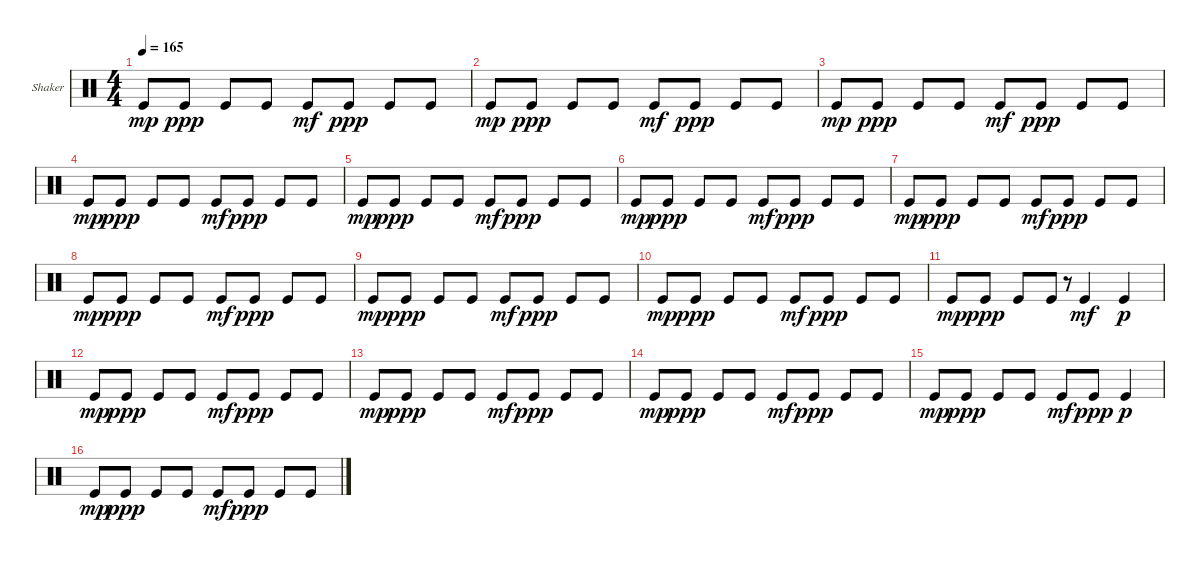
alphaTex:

\defaultSystemsLayout 4
\bracketExtendMode groupsimilarinstruments
\firstSystemTrackNameOrientation horizontal
\otherSystemsTrackNameOrientation horizontal
\track ("Shaker" "Shaker") {instrument percussion}
\staff {score}
\articulation defaults
\ts (4 4)
\tempo 165
\clef neutral
\ks c "Kick (hit)".8{dy mp} "Kick (hit)".8{dy ppp} "Kick (hit)".8 "Kick (hit)".8 "Kick (hit)".8{dy mf} "Kick (hit)".8{dy ppp} "Kick (hit)".8 "Kick (hit)".8
|
"Kick (hit)".8{dy mp} "Kick (hit)".8{dy ppp} "Kick (hit)".8 "Kick (hit)".8 "Kick (hit)".8{dy mf} "Kick (hit)".8{dy ppp} "Kick (hit)".8 "Kick (hit)".8 |
"Kick (hit)".8{dy mp} "Kick (hit)".8{dy ppp} "Kick (hit)".8 "Kick (hit)".8 "Kick (hit)".8{dy mf} "Kick (hit)".8{dy ppp} "Kick (hit)".8 "Kick (hit)".8 |
"Kick (hit)".8{dy mp} "Kick (hit)".8{dy ppp} "Kick (hit)".8 "Kick (hit)".8 "Kick (hit)".8{dy mf} "Kick (hit)".8{dy ppp} "Kick (hit)".8 "Kick (hit)".8 |
"Kick (hit)".8{dy mp} "Kick (hit)".8{dy ppp} "Kick (hit)".8 "Kick (hit)".8 "Kick (hit)".8{dy mf} "Kick (hit)".8{dy ppp} "Kick (hit)".8 "Kick (hit)".8 |
"Kick (hit)".8{dy mp} "Kick (hit)".8{dy ppp} "Kick (hit)".8 "Kick (hit)".8 "Kick (hit)".8{dy mf} "Kick (hit)".8{dy ppp} "Kick (hit)".8 "Kick (hit)".8 |
"Kick (hit)".8{dy mp} "Kick (hit)".8{dy ppp} "Kick (hit)".8 "Kick (hit)".8 "Kick (hit)".8{dy mf} "Kick (hit)".8{dy ppp} "Kick (hit)".8 "Kick (hit)".8 |
"Kick (hit)".8{dy mp} "Kick (hit)".8{dy ppp} "Kick (hit)".8 "Kick (hit)".8 "Kick (hit)".8{dy mf} "Kick (hit)".8{dy ppp} "Kick (hit)".8 "Kick (hit)".8 |
"Kick (hit)".8{dy mp} "Kick (hit)".8{dy ppp} "Kick (hit)".8 "Kick (hit)".8 "Kick (hit)".8{dy mf} "Kick (hit)".8{dy ppp} "Kick (hit)".8 "Kick (hit)".8 |
"Kick (hit)".8{dy mp} "Kick (hit)".8{dy ppp} "Kick (hit)".8 "Kick (hit)".8 "Kick (hit)".8{dy mf} "Kick (hit)".8{dy ppp} "Kick (hit)".8 "Kick (hit)".8 |
"Kick (hit)".8{dy mp} "Kick (hit)".8{dy ppp} "Kick (hit)".8 "Kick (hit)".8 r.8{gr} "Kick (hit)".4{dy mf} "Kick (hit)".4{dy p} |
"Kick (hit)".8{dy mp} "Kick (hit)".8{dy ppp} "Kick (hit)".8 "Kick (hit)".8 "Kick (hit)".8{dy mf} "Kick (hit)".8{dy ppp} "Kick (hit)".8 "Kick (hit)".8 |
"Kick (hit)".8{dy mp} "Kick (hit)".8{dy ppp} "Kick (hit)".8 "Kick (hit)".8 "Kick (hit)".8{dy mf} "Kick (hit)".8{dy ppp} "Kick (hit)".8 "Kick (hit)".8 |
"Kick (hit)".8{dy mp} "Kick (hit)".8{dy ppp} "Kick (hit)".8 "Kick (hit)".8 "Kick (hit)".8{dy mf} "Kick (hit)".8{dy ppp} "Kick (hit)".8 "Kick (hit)".8 |
"Kick (hit)".8{dy mp} "Kick (hit)".8{dy ppp} "Kick (hit)".8 "Kick (hit)".8 "Kick (hit)".8{dy mf} "Kick (hit)".8{dy ppp} "Kick (hit)".4{dy p} |
"Kick (hit)".8{dy mp} "Kick (hit)".8{dy ppp} "Kick (hit)".8 "Kick (hit)".8 "Kick (hit)".8{dy mf} "Kick (hit)".8{dy ppp} "Kick (hit)".8 "Kick (hit)".8
